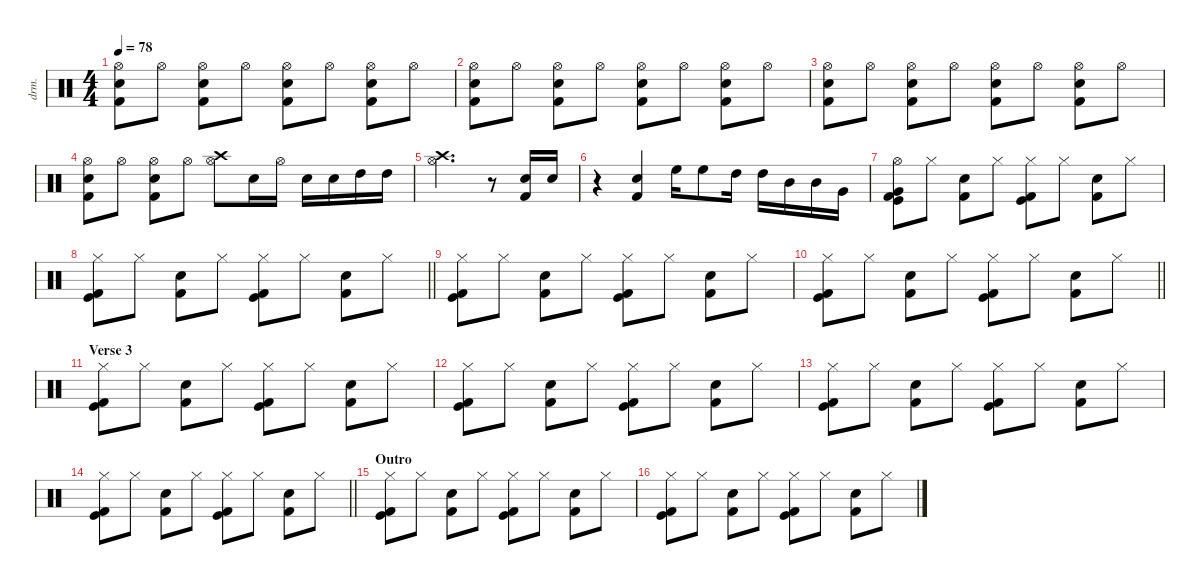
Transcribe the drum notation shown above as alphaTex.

\defaultSystemsLayout 4
\hideDynamics
\bracketExtendMode nobrackets
\otherSystemsTrackNameOrientation horizontal
\track ("Drums" "drm.") {instrument percussion}
\staff {score}
\articulation defaults
\ts (4 4)
\tempo 78
\clef neutral
\ks c
("Hi-Hat (open)" "Snare (hit) 2" "Kick (hit) 2").8{dy f} "Hi-Hat (open)".8 ("Hi-Hat (open)" "Snare (hit) 2" "Kick (hit) 2").8 "Hi-Hat (open)".8 ("Hi-Hat (open)" "Snare (hit) 2" "Kick (hit) 2").8 "Hi-Hat (open)".8 ("Hi-Hat (open)" "Snare (hit) 2" "Kick (hit) 2").8 "Hi-Hat (open)".8 |
("Hi-Hat (open)" "Snare (hit) 2" "Kick (hit) 2").8 "Hi-Hat (open)".8 ("Hi-Hat (open)" "Snare (hit) 2" "Kick (hit) 2").8 "Hi-Hat (open)".8 ("Hi-Hat (open)" "Snare (hit) 2" "Kick (hit) 2").8 "Hi-Hat (open)".8 ("Hi-Hat (open)" "Snare (hit) 2" "Kick (hit) 2").8 "Hi-Hat (open)".8 |
("Hi-Hat (open)" "Snare (hit) 2" "Kick (hit) 2").8 "Hi-Hat (open)".8 ("Hi-Hat (open)" "Snare (hit) 2" "Kick (hit) 2").8 "Hi-Hat (open)".8 ("Hi-Hat (open)" "Snare (hit) 2" "Kick (hit) 2").8 "Hi-Hat (open)".8 ("Hi-Hat (open)" "Snare (hit) 2" "Kick (hit) 2").8 "Hi-Hat (open)".8 |
("Hi-Hat (open)" "Snare (hit) 2" "Kick (hit) 2").8 "Hi-Hat (open)".8 ("Hi-Hat (open)" "Snare (hit) 2" "Kick (hit) 2").8 "Hi-Hat (open)".8 ("Crash high (hit)" "Hi-Hat (open)").8 "Snare (hit) 2".16 "Hi-Hat (open)".16 "Snare (hit) 2".16 "Snare (hit) 2".16 "High Tom (hit)".16 "High Tom (hit)".16 |
("Crash high (hit)" "Hi-Hat (open)").2{d} r.8 ("Snare (hit) 2" "Kick (hit) 2").16 "Snare (hit) 2".16 |
r.4 ("Snare (hit) 2" "Kick (hit) 2").4 "High Floor Tom (hit)".16 "High Floor Tom (hit)".8 "High Tom (hit)".16 "High Tom (hit)".16 "Mid Tom (hit)".16 "Mid Tom (hit)".16 "Very Low Tom (hit)".16 |
("Hi-Hat (open)" "Very Low Tom (hit)" "Kick (hit)" "Kick (hit) 2").8 "Hi-Hat (closed)".8 ("Snare (hit) 2" "Kick (hit) 2").8 "Hi-Hat (closed)".8 ("Hi-Hat (closed)" "Kick (hit)" "Kick (hit) 2").8 "Hi-Hat (closed)".8 ("Snare (hit) 2" "Kick (hit) 2").8 "Hi-Hat (closed)".8 |
\barLineRight lightlight
("Hi-Hat (closed)" "Kick (hit)" "Kick (hit) 2").8 "Hi-Hat (closed)".8 ("Snare (hit) 2" "Kick (hit) 2").8 "Hi-Hat (closed)".8 ("Hi-Hat (closed)" "Kick (hit)" "Kick (hit) 2").8 "Hi-Hat (closed)".8 ("Snare (hit) 2" "Kick (hit) 2").8 "Hi-Hat (closed)".8 |
("Hi-Hat (closed)" "Kick (hit)" "Kick (hit) 2").8 "Hi-Hat (closed)".8 ("Snare (hit) 2" "Kick (hit) 2").8 "Hi-Hat (closed)".8 ("Hi-Hat (closed)" "Kick (hit)" "Kick (hit) 2").8 "Hi-Hat (closed)".8 ("Snare (hit) 2" "Kick (hit) 2").8 "Hi-Hat (closed)".8 |
\barLineRight lightlight
("Hi-Hat (closed)" "Kick (hit)" "Kick (hit) 2").8 "Hi-Hat (closed)".8 ("Snare (hit) 2" "Kick (hit) 2").8 "Hi-Hat (closed)".8 ("Hi-Hat (closed)" "Kick (hit)" "Kick (hit) 2").8 "Hi-Hat (closed)".8 ("Snare (hit) 2" "Kick (hit) 2").8 "Hi-Hat (closed)".8 |
\section ("" "Verse 3")
("Hi-Hat (closed)" "Kick (hit)" "Kick (hit) 2").8 "Hi-Hat (closed)".8 ("Snare (hit) 2" "Kick (hit) 2").8 "Hi-Hat (closed)".8 ("Hi-Hat (closed)" "Kick (hit)" "Kick (hit) 2").8 "Hi-Hat (closed)".8 ("Snare (hit) 2" "Kick (hit) 2").8 "Hi-Hat (closed)".8 |
("Hi-Hat (closed)" "Kick (hit)" "Kick (hit) 2").8 "Hi-Hat (closed)".8 ("Snare (hit) 2" "Kick (hit) 2").8 "Hi-Hat (closed)".8 ("Hi-Hat (closed)" "Kick (hit)" "Kick (hit) 2").8 "Hi-Hat (closed)".8 ("Snare (hit) 2" "Kick (hit) 2").8 "Hi-Hat (closed)".8 |
("Hi-Hat (closed)" "Kick (hit)" "Kick (hit) 2").8 "Hi-Hat (closed)".8 ("Snare (hit) 2" "Kick (hit) 2").8 "Hi-Hat (closed)".8 ("Hi-Hat (closed)" "Kick (hit)" "Kick (hit) 2").8 "Hi-Hat (closed)".8 ("Snare (hit) 2" "Kick (hit) 2").8 "Hi-Hat (closed)".8 |
\barLineRight lightlight
("Hi-Hat (closed)" "Kick (hit)" "Kick (hit) 2").8 "Hi-Hat (closed)".8 ("Snare (hit) 2" "Kick (hit) 2").8 "Hi-Hat (closed)".8 ("Hi-Hat (closed)" "Kick (hit)" "Kick (hit) 2").8 "Hi-Hat (closed)".8 ("Snare (hit) 2" "Kick (hit) 2").8 "Hi-Hat (closed)".8 |
\section ("" "Outro")
("Hi-Hat (closed)" "Kick (hit)" "Kick (hit) 2").8 "Hi-Hat (closed)".8 ("Snare (hit) 2" "Kick (hit) 2").8 "Hi-Hat (closed)".8 ("Hi-Hat (closed)" "Kick (hit)" "Kick (hit) 2").8 "Hi-Hat (closed)".8 ("Snare (hit) 2" "Kick (hit) 2").8 "Hi-Hat (closed)".8 |
("Hi-Hat (closed)" "Kick (hit)" "Kick (hit) 2").8 "Hi-Hat (closed)".8 ("Snare (hit) 2" "Kick (hit) 2").8 "Hi-Hat (closed)".8 ("Hi-Hat (closed)" "Kick (hit)" "Kick (hit) 2").8 "Hi-Hat (closed)".8 ("Snare (hit) 2" "Kick (hit) 2").8 "Hi-Hat (closed)".8
